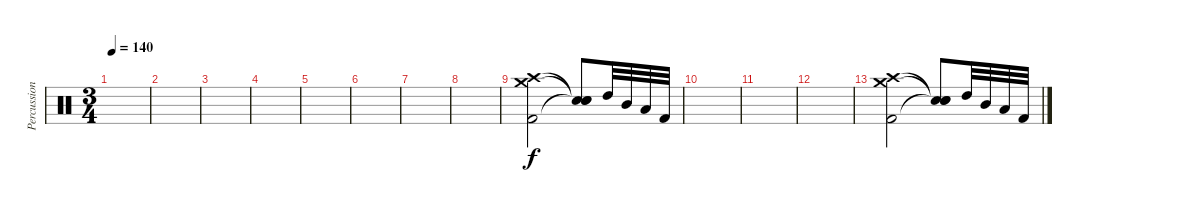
\track ("Percussion" "Percussion") {instrument percussion}
\staff {score}
\articulation defaults
\ts (3 4)
\tempo 140
\clef neutral
\ks c
|
|
|
|
|
|
|
|
("Crash high (hit)" "Crash medium (hit)" "Kick (hit) 2").2 ("Snare (hit)"{t} "Snare (hit)"{t} "Snare (hit)"{t}).8 "High Tom (hit)".32 "Mid Tom (hit)".32 "Low Tom (hit)".32 "Kick (hit) 2".32 |
|
|
|
("Crash high (hit)" "Crash medium (hit)" "Kick (hit) 2").2 ("Snare (hit)"{t} "Snare (hit)"{t} "Snare (hit)"{t}).8 "High Tom (hit)".32 "Mid Tom (hit)".32 "Low Tom (hit)".32 "Kick (hit) 2".32
